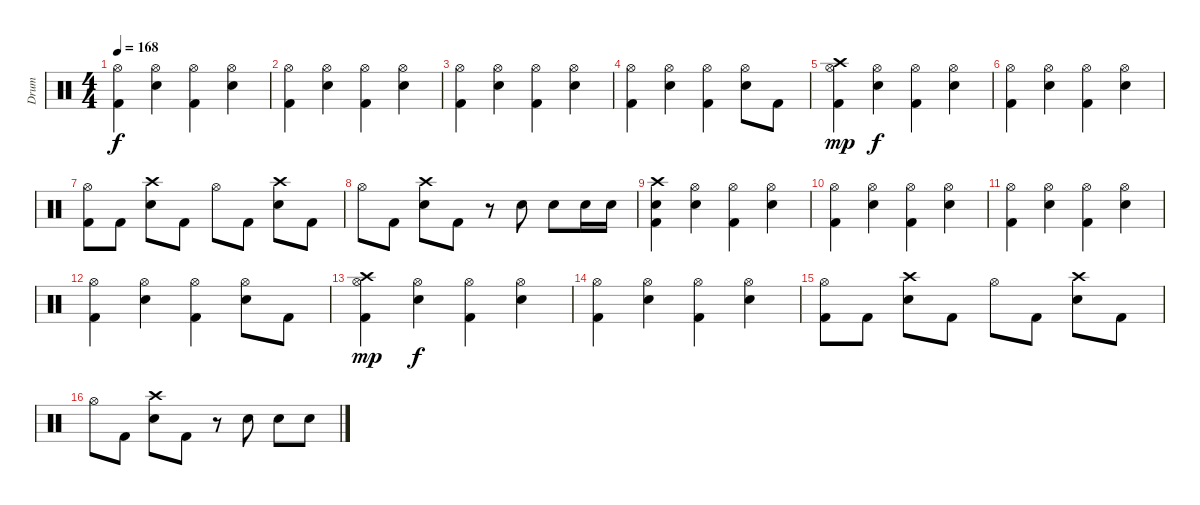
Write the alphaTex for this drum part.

\track ("Drum" "Drum") {instrument percussion}
\staff {score}
\articulation defaults
\ts (4 4)
\tempo 168
\clef neutral
\ks c
("Hi-Hat (open)" "Kick (hit) 2").4{dy f} ("Hi-Hat (open)" "Electric Snare (hit)").4 ("Hi-Hat (open)" "Kick (hit) 2").4 ("Hi-Hat (open)" "Electric Snare (hit)").4 |
("Hi-Hat (open)" "Kick (hit) 2").4 ("Hi-Hat (open)" "Electric Snare (hit)").4 ("Hi-Hat (open)" "Kick (hit) 2").4 ("Hi-Hat (open)" "Electric Snare (hit)").4 |
("Hi-Hat (open)" "Kick (hit) 2").4 ("Hi-Hat (open)" "Electric Snare (hit)").4 ("Hi-Hat (open)" "Kick (hit) 2").4 ("Hi-Hat (open)" "Electric Snare (hit)").4 |
("Hi-Hat (open)" "Kick (hit) 2").4 ("Hi-Hat (open)" "Electric Snare (hit)").4 ("Hi-Hat (open)" "Kick (hit) 2").4 ("Hi-Hat (open)" "Electric Snare (hit)").8 "Kick (hit) 2".8 |
("Crash high (hit)" "Hi-Hat (open)" "Kick (hit) 2").4{dy mp} ("Hi-Hat (open)" "Electric Snare (hit)").4{dy f} ("Hi-Hat (open)" "Kick (hit) 2").4 ("Hi-Hat (open)" "Electric Snare (hit)").4 |
("Hi-Hat (open)" "Kick (hit) 2").4 ("Hi-Hat (open)" "Electric Snare (hit)").4 ("Hi-Hat (open)" "Kick (hit) 2").4 ("Hi-Hat (open)" "Electric Snare (hit)").4 |
("Hi-Hat (open)" "Kick (hit) 2").8 "Kick (hit) 2".8 ("Crash high (hit)" "Electric Snare (hit)").8 "Kick (hit) 2".8 "Hi-Hat (open)".8 "Kick (hit) 2".8 ("Crash high (hit)" "Electric Snare (hit)").8 "Kick (hit) 2".8 |
"Hi-Hat (open)".8 "Kick (hit) 2".8 ("Crash high (hit)" "Electric Snare (hit)").8 "Kick (hit) 2".8 r.8 "Electric Snare (hit)".8 "Electric Snare (hit)".8 "Electric Snare (hit)".16 "Electric Snare (hit)".16 |
("Crash high (hit)" "Electric Snare (hit)" "Kick (hit) 2").4 ("Hi-Hat (open)" "Electric Snare (hit)").4 ("Hi-Hat (open)" "Kick (hit) 2").4 ("Hi-Hat (open)" "Electric Snare (hit)").4 |
("Hi-Hat (open)" "Kick (hit) 2").4 ("Hi-Hat (open)" "Electric Snare (hit)").4 ("Hi-Hat (open)" "Kick (hit) 2").4 ("Hi-Hat (open)" "Electric Snare (hit)").4 |
("Hi-Hat (open)" "Kick (hit) 2").4 ("Hi-Hat (open)" "Electric Snare (hit)").4 ("Hi-Hat (open)" "Kick (hit) 2").4 ("Hi-Hat (open)" "Electric Snare (hit)").4 |
("Hi-Hat (open)" "Kick (hit) 2").4 ("Hi-Hat (open)" "Electric Snare (hit)").4 ("Hi-Hat (open)" "Kick (hit) 2").4 ("Hi-Hat (open)" "Electric Snare (hit)").8 "Kick (hit) 2".8 |
("Crash high (hit)" "Hi-Hat (open)" "Kick (hit) 2").4{dy mp} ("Hi-Hat (open)" "Electric Snare (hit)").4{dy f} ("Hi-Hat (open)" "Kick (hit) 2").4 ("Hi-Hat (open)" "Electric Snare (hit)").4 |
("Hi-Hat (open)" "Kick (hit) 2").4 ("Hi-Hat (open)" "Electric Snare (hit)").4 ("Hi-Hat (open)" "Kick (hit) 2").4 ("Hi-Hat (open)" "Electric Snare (hit)").4 |
("Hi-Hat (open)" "Kick (hit) 2").8 "Kick (hit) 2".8 ("Crash high (hit)" "Electric Snare (hit)").8 "Kick (hit) 2".8 "Hi-Hat (open)".8 "Kick (hit) 2".8 ("Crash high (hit)" "Electric Snare (hit)").8 "Kick (hit) 2".8 |
"Hi-Hat (open)".8 "Kick (hit) 2".8 ("Crash high (hit)" "Electric Snare (hit)").8 "Kick (hit) 2".8 r.8 "Electric Snare (hit)".8 "Electric Snare (hit)".8 "Electric Snare (hit)".8
